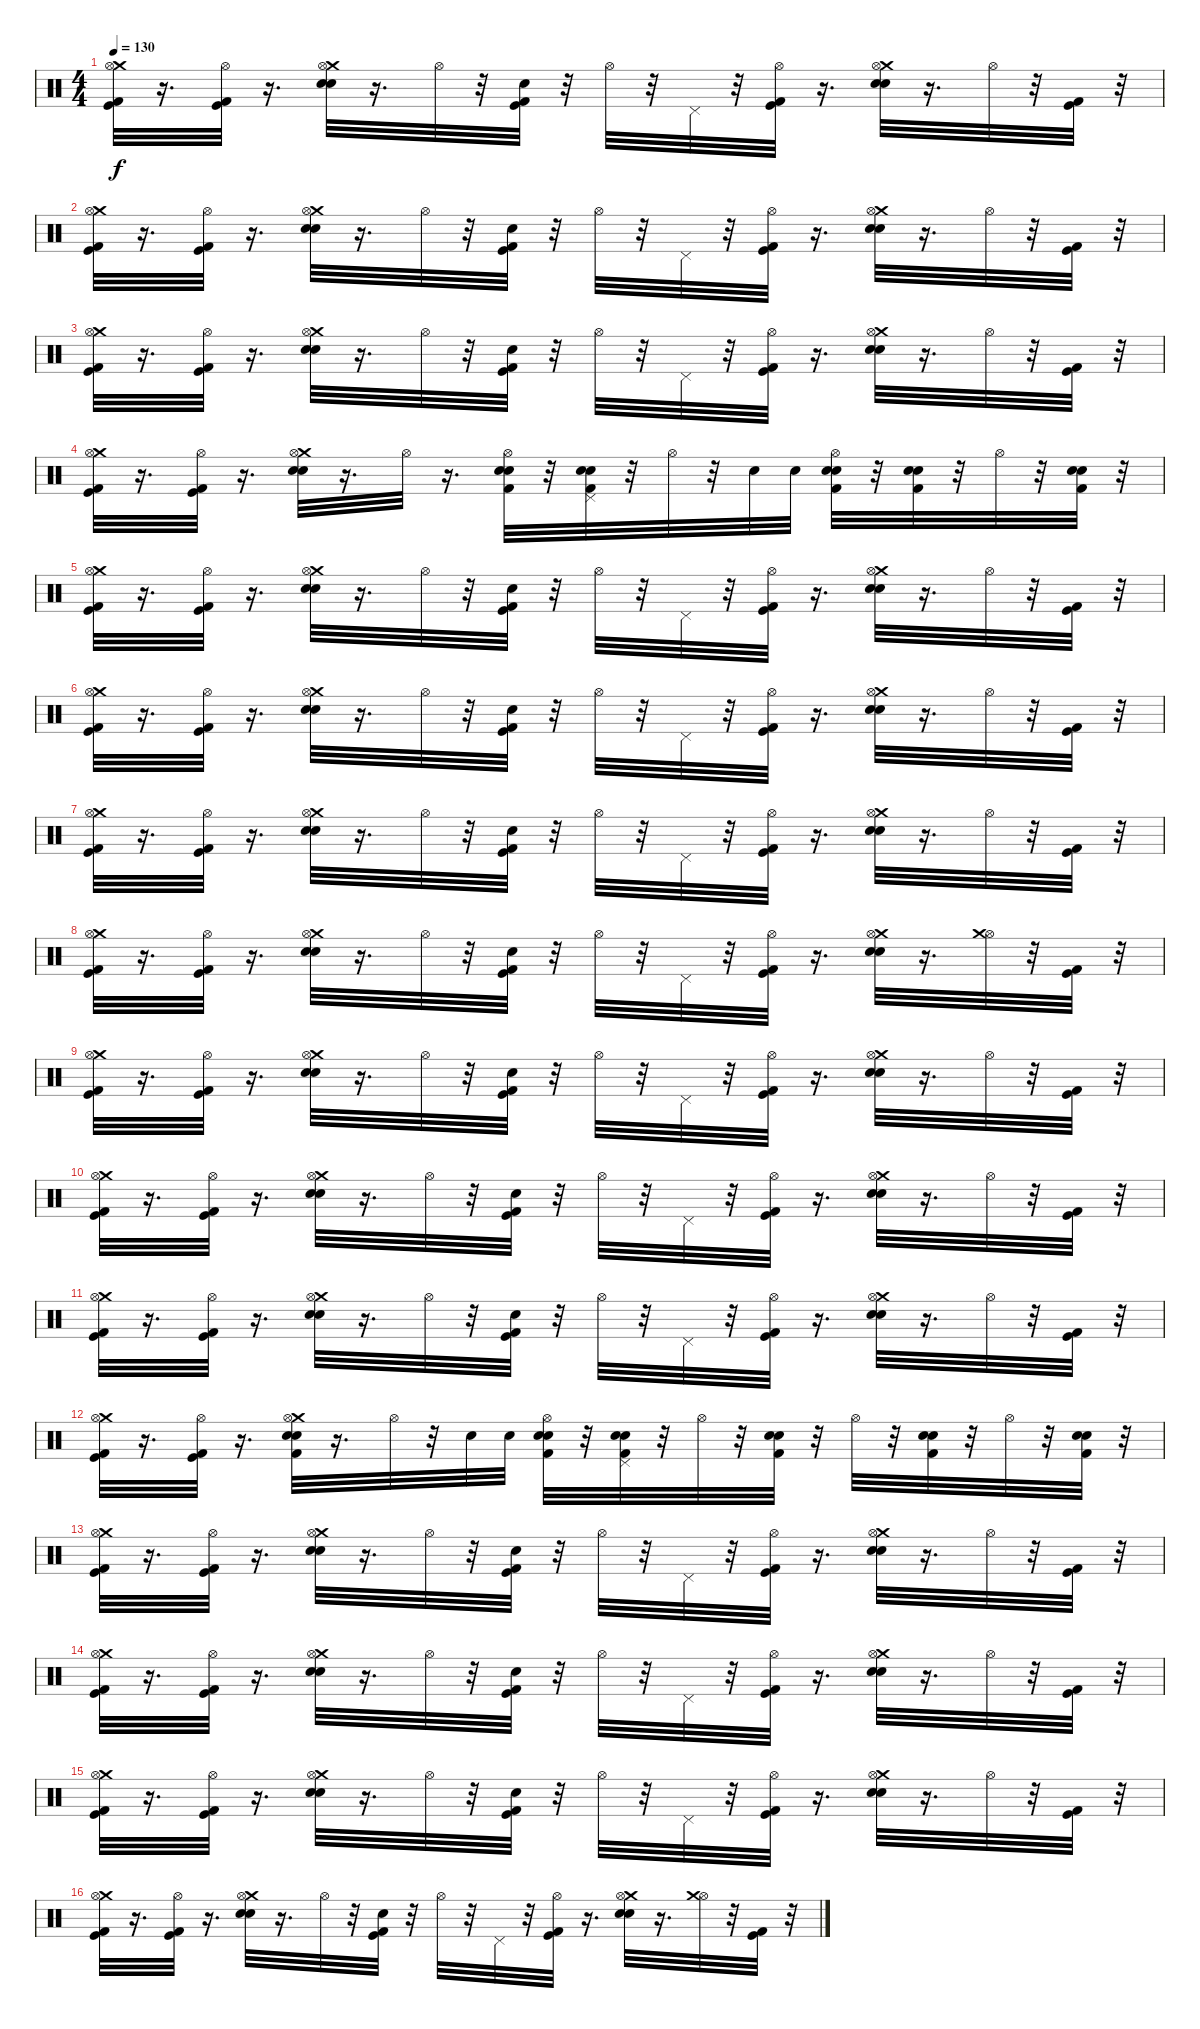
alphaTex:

\track "" {instrument percussion}
\staff {score}
\articulation defaults
\ts (4 4)
\tempo 130
\clef neutral
\ks c
("Kick (hit) 2" "Kick (hit)" "Crash medium (hit)" "Hi-Hat (open)").32{dy f} r.16{d} ("Kick (hit) 2" "Kick (hit)" "Hi-Hat (open)").32 r.16{d} ("Snare (hit) 2" "Electric Snare (hit)" "Crash medium (hit)" "Hi-Hat (open)").32 r.16{d} "Hi-Hat (open)".32 r.32 ("Kick (hit) 2" "Kick (hit)" "Electric Snare (hit)").32 r.32 "Hi-Hat (open)".32 r.32 "Pedal Hi-Hat (hit)".32 r.32 ("Kick (hit) 2" "Kick (hit)" "Hi-Hat (open)").32 r.16{d} ("Snare (hit) 2" "Electric Snare (hit)" "Crash medium (hit)" "Hi-Hat (open)").32 r.16{d} "Hi-Hat (open)".32 r.32 ("Kick (hit) 2" "Kick (hit)").32 r.32 |
("Kick (hit) 2" "Kick (hit)" "Crash medium (hit)" "Hi-Hat (open)").32 r.16{d} ("Kick (hit) 2" "Kick (hit)" "Hi-Hat (open)").32 r.16{d} ("Snare (hit) 2" "Electric Snare (hit)" "Crash medium (hit)" "Hi-Hat (open)").32 r.16{d} "Hi-Hat (open)".32 r.32 ("Kick (hit) 2" "Kick (hit)" "Electric Snare (hit)").32 r.32 "Hi-Hat (open)".32 r.32 "Pedal Hi-Hat (hit)".32 r.32 ("Kick (hit) 2" "Kick (hit)" "Hi-Hat (open)").32 r.16{d} ("Snare (hit) 2" "Electric Snare (hit)" "Crash medium (hit)" "Hi-Hat (open)").32 r.16{d} "Hi-Hat (open)".32 r.32 ("Kick (hit) 2" "Kick (hit)").32 r.32 |
("Kick (hit) 2" "Kick (hit)" "Crash medium (hit)" "Hi-Hat (open)").32 r.16{d} ("Kick (hit) 2" "Kick (hit)" "Hi-Hat (open)").32 r.16{d} ("Snare (hit) 2" "Electric Snare (hit)" "Crash medium (hit)" "Hi-Hat (open)").32 r.16{d} "Hi-Hat (open)".32 r.32 ("Kick (hit) 2" "Kick (hit)" "Electric Snare (hit)").32 r.32 "Hi-Hat (open)".32 r.32 "Pedal Hi-Hat (hit)".32 r.32 ("Kick (hit) 2" "Kick (hit)" "Hi-Hat (open)").32 r.16{d} ("Snare (hit) 2" "Electric Snare (hit)" "Crash medium (hit)" "Hi-Hat (open)").32 r.16{d} "Hi-Hat (open)".32 r.32 ("Kick (hit) 2" "Kick (hit)").32 r.32 |
("Kick (hit) 2" "Kick (hit)" "Crash medium (hit)" "Hi-Hat (open)").32 r.16{d} ("Kick (hit) 2" "Kick (hit)" "Hi-Hat (open)").32 r.16{d} ("Snare (hit) 2" "Electric Snare (hit)" "Crash medium (hit)" "Hi-Hat (open)").32 r.16{d} "Hi-Hat (open)".32 r.16{d} ("Hi-Hat (open)" "Electric Snare (hit)" "Snare (hit) 2" "Kick (hit) 2").32 r.32 ("Electric Snare (hit)" "Snare (hit) 2" "Kick (hit) 2" "Pedal Hi-Hat (hit)").32 r.32 "Hi-Hat (open)".32 r.32 "Electric Snare (hit)".32 "Electric Snare (hit)".32 ("Hi-Hat (open)" "Snare (hit) 2" "Electric Snare (hit)" "Kick (hit) 2").32 r.32 ("Electric Snare (hit)" "Snare (hit) 2" "Kick (hit) 2").32 r.32 "Hi-Hat (open)".32 r.32 ("Electric Snare (hit)" "Snare (hit) 2" "Kick (hit) 2").32 r.32 |
("Kick (hit) 2" "Kick (hit)" "Crash medium (hit)" "Hi-Hat (open)").32 r.16{d} ("Kick (hit) 2" "Kick (hit)" "Hi-Hat (open)").32 r.16{d} ("Snare (hit) 2" "Electric Snare (hit)" "Crash medium (hit)" "Hi-Hat (open)").32 r.16{d} "Hi-Hat (open)".32 r.32 ("Kick (hit) 2" "Kick (hit)" "Electric Snare (hit)").32 r.32 "Hi-Hat (open)".32 r.32 "Pedal Hi-Hat (hit)".32 r.32 ("Kick (hit) 2" "Kick (hit)" "Hi-Hat (open)").32 r.16{d} ("Snare (hit) 2" "Electric Snare (hit)" "Crash medium (hit)" "Hi-Hat (open)").32 r.16{d} "Hi-Hat (open)".32 r.32 ("Kick (hit) 2" "Kick (hit)").32 r.32 |
("Kick (hit) 2" "Kick (hit)" "Crash medium (hit)" "Hi-Hat (open)").32 r.16{d} ("Kick (hit) 2" "Kick (hit)" "Hi-Hat (open)").32 r.16{d} ("Snare (hit) 2" "Electric Snare (hit)" "Crash medium (hit)" "Hi-Hat (open)").32 r.16{d} "Hi-Hat (open)".32 r.32 ("Kick (hit) 2" "Kick (hit)" "Electric Snare (hit)").32 r.32 "Hi-Hat (open)".32 r.32 "Pedal Hi-Hat (hit)".32 r.32 ("Kick (hit) 2" "Kick (hit)" "Hi-Hat (open)").32 r.16{d} ("Snare (hit) 2" "Electric Snare (hit)" "Crash medium (hit)" "Hi-Hat (open)").32 r.16{d} "Hi-Hat (open)".32 r.32 ("Kick (hit) 2" "Kick (hit)").32 r.32 |
("Kick (hit) 2" "Kick (hit)" "Crash medium (hit)" "Hi-Hat (open)").32 r.16{d} ("Kick (hit) 2" "Kick (hit)" "Hi-Hat (open)").32 r.16{d} ("Snare (hit) 2" "Electric Snare (hit)" "Crash medium (hit)" "Hi-Hat (open)").32 r.16{d} "Hi-Hat (open)".32 r.32 ("Kick (hit) 2" "Kick (hit)" "Electric Snare (hit)").32 r.32 "Hi-Hat (open)".32 r.32 "Pedal Hi-Hat (hit)".32 r.32 ("Kick (hit) 2" "Kick (hit)" "Hi-Hat (open)").32 r.16{d} ("Snare (hit) 2" "Electric Snare (hit)" "Crash medium (hit)" "Hi-Hat (open)").32 r.16{d} "Hi-Hat (open)".32 r.32 ("Kick (hit) 2" "Kick (hit)").32 r.32 |
("Kick (hit) 2" "Kick (hit)" "Crash medium (hit)" "Hi-Hat (open)").32 r.16{d} ("Kick (hit) 2" "Kick (hit)" "Hi-Hat (open)").32 r.16{d} ("Snare (hit) 2" "Electric Snare (hit)" "Crash medium (hit)" "Hi-Hat (open)").32 r.16{d} "Hi-Hat (open)".32 r.32 ("Kick (hit) 2" "Kick (hit)" "Electric Snare (hit)").32 r.32 "Hi-Hat (open)".32 r.32 "Pedal Hi-Hat (hit)".32 r.32 ("Kick (hit) 2" "Kick (hit)" "Hi-Hat (open)").32 r.16{d} ("Snare (hit) 2" "Electric Snare (hit)" "Crash medium (hit)" "Hi-Hat (open)").32 r.16{d} ("Hi-Hat (open)" "Crash medium (hit)").32 r.32 ("Kick (hit) 2" "Kick (hit)").32 r.32 |
("Kick (hit) 2" "Kick (hit)" "Crash medium (hit)" "Hi-Hat (open)").32 r.16{d} ("Kick (hit) 2" "Kick (hit)" "Hi-Hat (open)").32 r.16{d} ("Snare (hit) 2" "Electric Snare (hit)" "Crash medium (hit)" "Hi-Hat (open)").32 r.16{d} "Hi-Hat (open)".32 r.32 ("Kick (hit) 2" "Kick (hit)" "Electric Snare (hit)").32 r.32 "Hi-Hat (open)".32 r.32 "Pedal Hi-Hat (hit)".32 r.32 ("Kick (hit) 2" "Kick (hit)" "Hi-Hat (open)").32 r.16{d} ("Snare (hit) 2" "Electric Snare (hit)" "Crash medium (hit)" "Hi-Hat (open)").32 r.16{d} "Hi-Hat (open)".32 r.32 ("Kick (hit) 2" "Kick (hit)").32 r.32 |
("Kick (hit) 2" "Kick (hit)" "Crash medium (hit)" "Hi-Hat (open)").32 r.16{d} ("Kick (hit) 2" "Kick (hit)" "Hi-Hat (open)").32 r.16{d} ("Snare (hit) 2" "Electric Snare (hit)" "Crash medium (hit)" "Hi-Hat (open)").32 r.16{d} "Hi-Hat (open)".32 r.32 ("Kick (hit) 2" "Kick (hit)" "Electric Snare (hit)").32 r.32 "Hi-Hat (open)".32 r.32 "Pedal Hi-Hat (hit)".32 r.32 ("Kick (hit) 2" "Kick (hit)" "Hi-Hat (open)").32 r.16{d} ("Snare (hit) 2" "Electric Snare (hit)" "Crash medium (hit)" "Hi-Hat (open)").32 r.16{d} "Hi-Hat (open)".32 r.32 ("Kick (hit) 2" "Kick (hit)").32 r.32 |
("Kick (hit) 2" "Kick (hit)" "Crash medium (hit)" "Hi-Hat (open)").32 r.16{d} ("Kick (hit) 2" "Kick (hit)" "Hi-Hat (open)").32 r.16{d} ("Snare (hit) 2" "Electric Snare (hit)" "Crash medium (hit)" "Hi-Hat (open)").32 r.16{d} "Hi-Hat (open)".32 r.32 ("Kick (hit) 2" "Kick (hit)" "Electric Snare (hit)").32 r.32 "Hi-Hat (open)".32 r.32 "Pedal Hi-Hat (hit)".32 r.32 ("Kick (hit) 2" "Kick (hit)" "Hi-Hat (open)").32 r.16{d} ("Snare (hit) 2" "Electric Snare (hit)" "Crash medium (hit)" "Hi-Hat (open)").32 r.16{d} "Hi-Hat (open)".32 r.32 ("Kick (hit) 2" "Kick (hit)").32 r.32 |
("Kick (hit) 2" "Kick (hit)" "Crash medium (hit)" "Hi-Hat (open)").32 r.16{d} ("Kick (hit) 2" "Kick (hit)" "Hi-Hat (open)").32 r.16{d} ("Crash medium (hit)" "Hi-Hat (open)" "Electric Snare (hit)" "Snare (hit) 2" "Kick (hit) 2").32 r.16{d} "Hi-Hat (open)".32 r.32 "Electric Snare (hit)".32 "Electric Snare (hit)".32 ("Hi-Hat (open)" "Snare (hit) 2" "Electric Snare (hit)" "Kick (hit) 2").32 r.32 ("Pedal Hi-Hat (hit)" "Electric Snare (hit)" "Snare (hit) 2" "Kick (hit) 2").32 r.32 "Hi-Hat (open)".32 r.32 ("Electric Snare (hit)" "Snare (hit) 2" "Kick (hit) 2").32 r.32 "Hi-Hat (open)".32 r.32 ("Electric Snare (hit)" "Snare (hit) 2" "Kick (hit) 2").32 r.32 "Hi-Hat (open)".32 r.32 ("Electric Snare (hit)" "Snare (hit) 2" "Kick (hit) 2").32 r.32 |
("Kick (hit) 2" "Kick (hit)" "Crash medium (hit)" "Hi-Hat (open)").32 r.16{d} ("Kick (hit) 2" "Kick (hit)" "Hi-Hat (open)").32 r.16{d} ("Snare (hit) 2" "Electric Snare (hit)" "Crash medium (hit)" "Hi-Hat (open)").32 r.16{d} "Hi-Hat (open)".32 r.32 ("Kick (hit) 2" "Kick (hit)" "Electric Snare (hit)").32 r.32 "Hi-Hat (open)".32 r.32 "Pedal Hi-Hat (hit)".32 r.32 ("Kick (hit) 2" "Kick (hit)" "Hi-Hat (open)").32 r.16{d} ("Snare (hit) 2" "Electric Snare (hit)" "Crash medium (hit)" "Hi-Hat (open)").32 r.16{d} "Hi-Hat (open)".32 r.32 ("Kick (hit) 2" "Kick (hit)").32 r.32 |
("Kick (hit) 2" "Kick (hit)" "Crash medium (hit)" "Hi-Hat (open)").32 r.16{d} ("Kick (hit) 2" "Kick (hit)" "Hi-Hat (open)").32 r.16{d} ("Snare (hit) 2" "Electric Snare (hit)" "Crash medium (hit)" "Hi-Hat (open)").32 r.16{d} "Hi-Hat (open)".32 r.32 ("Kick (hit) 2" "Kick (hit)" "Electric Snare (hit)").32 r.32 "Hi-Hat (open)".32 r.32 "Pedal Hi-Hat (hit)".32 r.32 ("Kick (hit) 2" "Kick (hit)" "Hi-Hat (open)").32 r.16{d} ("Snare (hit) 2" "Electric Snare (hit)" "Crash medium (hit)" "Hi-Hat (open)").32 r.16{d} "Hi-Hat (open)".32 r.32 ("Kick (hit) 2" "Kick (hit)").32 r.32 |
("Kick (hit) 2" "Kick (hit)" "Crash medium (hit)" "Hi-Hat (open)").32 r.16{d} ("Kick (hit) 2" "Kick (hit)" "Hi-Hat (open)").32 r.16{d} ("Snare (hit) 2" "Electric Snare (hit)" "Crash medium (hit)" "Hi-Hat (open)").32 r.16{d} "Hi-Hat (open)".32 r.32 ("Kick (hit) 2" "Kick (hit)" "Electric Snare (hit)").32 r.32 "Hi-Hat (open)".32 r.32 "Pedal Hi-Hat (hit)".32 r.32 ("Kick (hit) 2" "Kick (hit)" "Hi-Hat (open)").32 r.16{d} ("Snare (hit) 2" "Electric Snare (hit)" "Crash medium (hit)" "Hi-Hat (open)").32 r.16{d} "Hi-Hat (open)".32 r.32 ("Kick (hit) 2" "Kick (hit)").32 r.32 |
("Kick (hit) 2" "Kick (hit)" "Crash medium (hit)" "Hi-Hat (open)").32 r.16{d} ("Kick (hit) 2" "Kick (hit)" "Hi-Hat (open)").32 r.16{d} ("Snare (hit) 2" "Electric Snare (hit)" "Crash medium (hit)" "Hi-Hat (open)").32 r.16{d} "Hi-Hat (open)".32 r.32 ("Kick (hit) 2" "Kick (hit)" "Electric Snare (hit)").32 r.32 "Hi-Hat (open)".32 r.32 "Pedal Hi-Hat (hit)".32 r.32 ("Kick (hit) 2" "Kick (hit)" "Hi-Hat (open)").32 r.16{d} ("Snare (hit) 2" "Electric Snare (hit)" "Crash medium (hit)" "Hi-Hat (open)").32 r.16{d} ("Hi-Hat (open)" "Crash medium (hit)").32 r.32 ("Kick (hit) 2" "Kick (hit)").32 r.32
